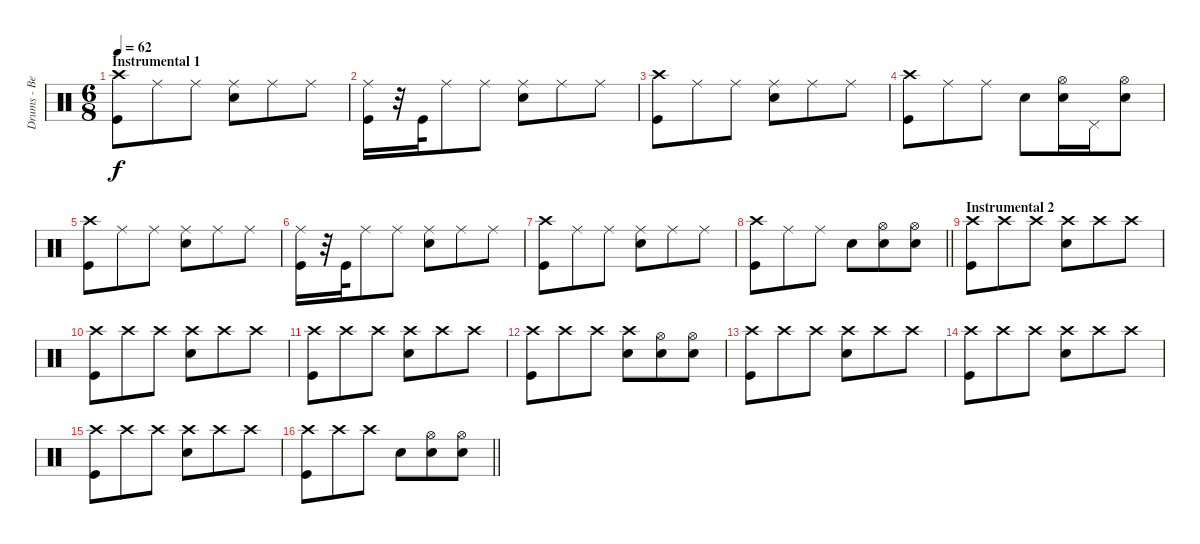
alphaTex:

\track ("Drums - Ben Johnston" "Drums - Be") {instrument percussion}
\staff {score}
\articulation defaults
\ts (6 8)
\section ("" "Instrumental 1")
\tempo 62
\clef neutral
\ks c
("Crash high (hit)" "Kick (hit)").8{dy f} "Ride (middle)".8 "Ride (middle)".8 ("Ride (middle)" "Snare (hit) 2").8 "Ride (middle)".8 "Ride (middle)".8 |
("Ride (middle)" "Kick (hit)").16 r.32 "Kick (hit)".32 "Ride (middle)".8 "Ride (middle)".8 ("Ride (middle)" "Snare (hit) 2").8 "Ride (middle)".8 "Ride (middle)".8 |
("Crash high (hit)" "Kick (hit)").8 "Ride (middle)".8 "Ride (middle)".8 ("Ride (middle)" "Snare (hit) 2").8 "Ride (middle)".8 "Ride (middle)".8 |
("Crash high (hit)" "Kick (hit)").8 "Ride (middle)".8 "Ride (middle)".8 "Snare (hit) 2".8 ("Hi-Hat (open)" "Snare (hit) 2").16 "Pedal Hi-Hat (hit)".16 ("Hi-Hat (open)" "Snare (hit) 2").8 |
("Crash high (hit)" "Kick (hit)").8 "Ride (middle)".8 "Ride (middle)".8 ("Ride (middle)" "Snare (hit) 2").8 "Ride (middle)".8 "Ride (middle)".8 |
("Ride (middle)" "Kick (hit)").16 r.32 "Kick (hit)".32 "Ride (middle)".8 "Ride (middle)".8 ("Ride (middle)" "Snare (hit) 2").8 "Ride (middle)".8 "Ride (middle)".8 |
("Crash high (hit)" "Kick (hit)").8 "Ride (middle)".8 "Ride (middle)".8 ("Ride (middle)" "Snare (hit) 2").8 "Ride (middle)".8 "Ride (middle)".8 |
\barLineRight lightlight
("Crash high (hit)" "Kick (hit)").8 "Ride (middle)".8 "Ride (middle)".8 "Snare (hit) 2".8 ("Hi-Hat (open)" "Snare (hit) 2").8 ("Hi-Hat (open)" "Snare (hit) 2").8 |
\section ("" "Instrumental 2")
("Crash high (hit)" "Kick (hit)").8 "Crash high (hit)".8 "Crash high (hit)".8 ("Crash high (hit)" "Snare (hit) 2").8 "Crash high (hit)".8 "Crash high (hit)".8 |
("Crash high (hit)" "Kick (hit)").8 "Crash high (hit)".8 "Crash high (hit)".8 ("Crash high (hit)" "Snare (hit) 2").8 "Crash high (hit)".8 "Crash high (hit)".8 |
("Crash high (hit)" "Kick (hit)").8 "Crash high (hit)".8 "Crash high (hit)".8 ("Crash high (hit)" "Snare (hit) 2").8 "Crash high (hit)".8 "Crash high (hit)".8 |
("Crash high (hit)" "Kick (hit)").8 "Crash high (hit)".8 "Crash high (hit)".8 ("Crash high (hit)" "Snare (hit) 2").8 ("Hi-Hat (open)" "Snare (hit) 2").8 ("Hi-Hat (open)" "Snare (hit) 2").8 |
("Crash high (hit)" "Kick (hit)").8 "Crash high (hit)".8 "Crash high (hit)".8 ("Crash high (hit)" "Snare (hit) 2").8 "Crash high (hit)".8 "Crash high (hit)".8 |
("Crash high (hit)" "Kick (hit)").8 "Crash high (hit)".8 "Crash high (hit)".8 ("Crash high (hit)" "Snare (hit) 2").8 "Crash high (hit)".8 "Crash high (hit)".8 |
("Crash high (hit)" "Kick (hit)").8 "Crash high (hit)".8 "Crash high (hit)".8 ("Crash high (hit)" "Snare (hit) 2").8 "Crash high (hit)".8 "Crash high (hit)".8 |
\barLineRight lightlight
("Crash high (hit)" "Kick (hit)").8 "Crash high (hit)".8 "Crash high (hit)".8 "Snare (hit) 2".8 ("Hi-Hat (open)" "Snare (hit) 2").8 ("Hi-Hat (open)" "Snare (hit) 2").8
